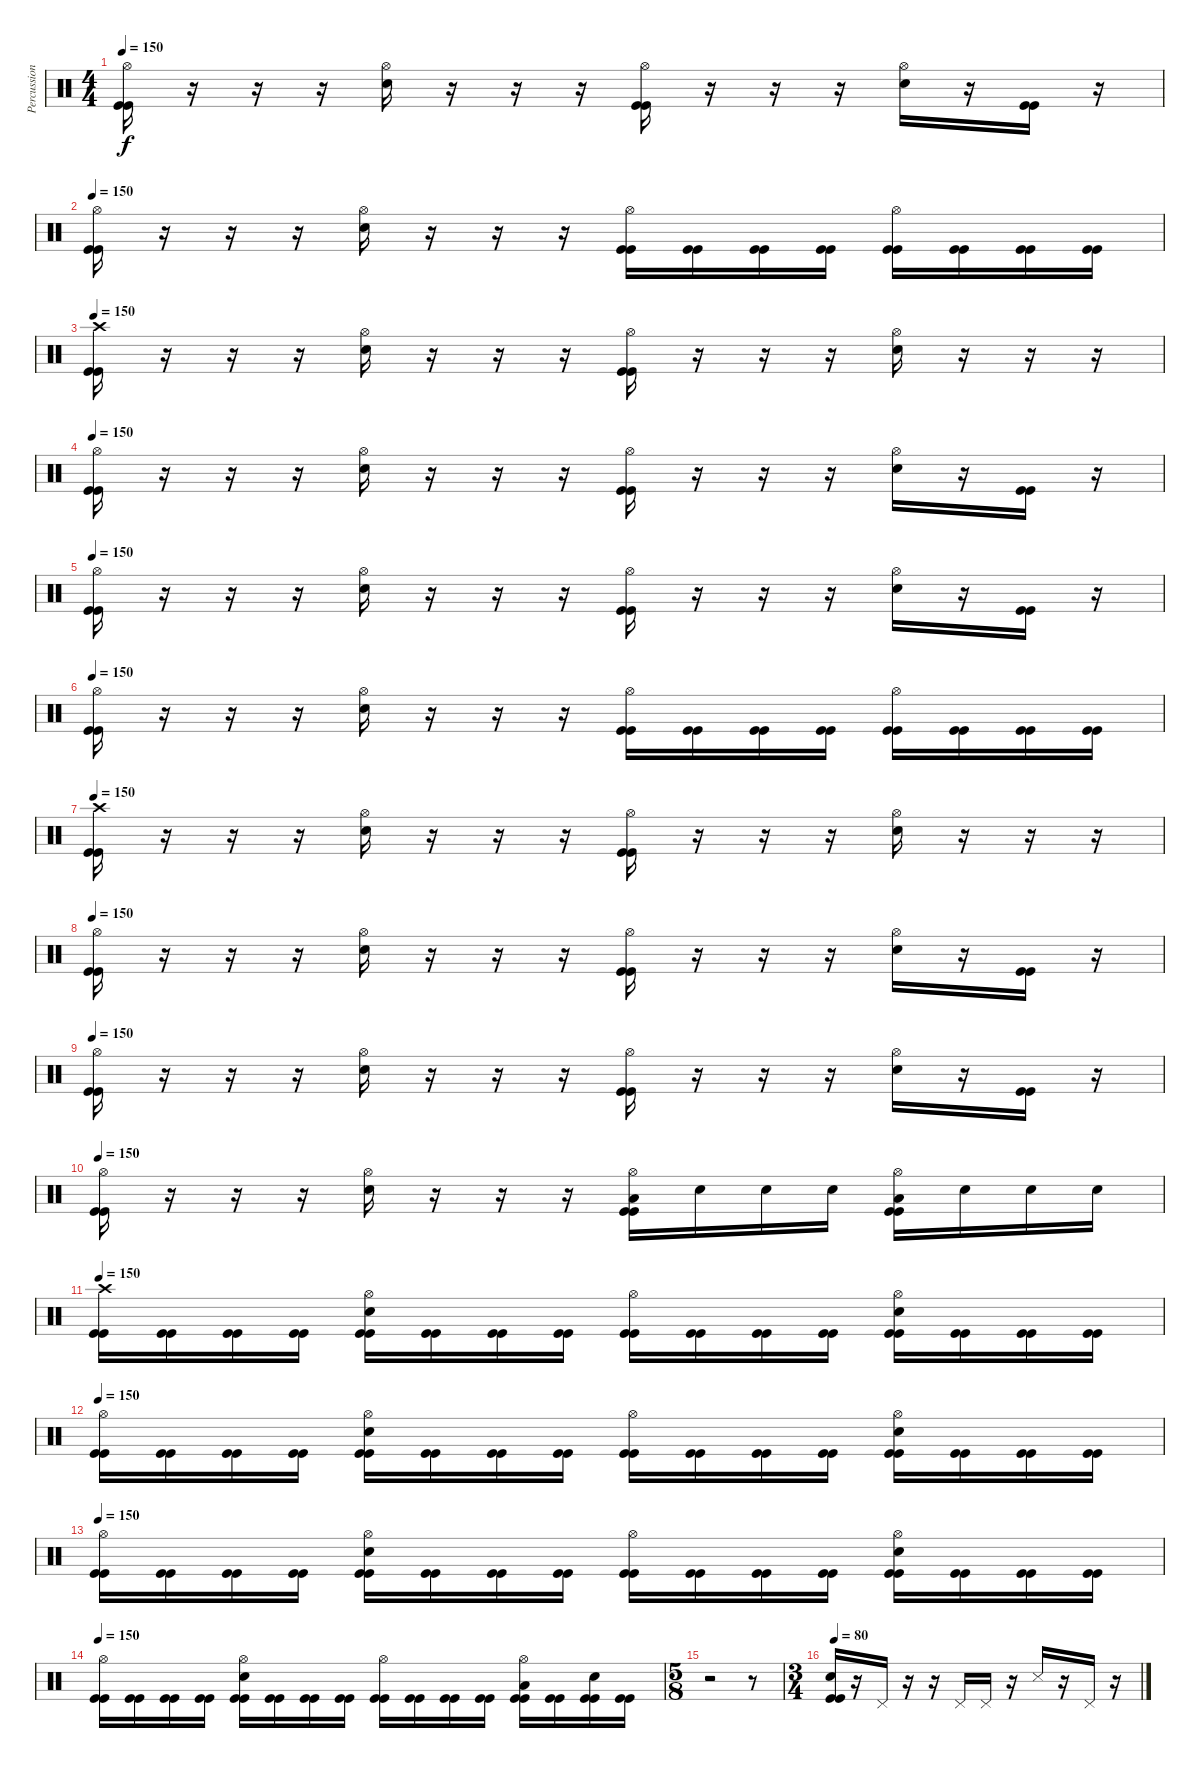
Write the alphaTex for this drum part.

\track ("Percussions" "Percussion") {instrument percussion}
\staff {score}
\articulation defaults
\ts (4 4)
\tempo 150
\clef neutral
\ks c
("Hi-Hat (open)" "Kick (hit)" "Kick (hit)").16{dy f} r.16 r.16 r.16 ("Hi-Hat (open)" "Electric Snare (hit)").16 r.16 r.16 r.16 ("Hi-Hat (open)" "Kick (hit)" "Kick (hit)").16 r.16 r.16 r.16 ("Hi-Hat (open)" "Electric Snare (hit)").16 r.16 ("Kick (hit)" "Kick (hit)").16 r.16 |
\tempo 150
("Hi-Hat (open)" "Kick (hit)" "Kick (hit)").16 r.16 r.16 r.16 ("Hi-Hat (open)" "Electric Snare (hit)").16 r.16 r.16 r.16 ("Hi-Hat (open)" "Kick (hit)" "Kick (hit)").16 ("Kick (hit)" "Kick (hit)").16 ("Kick (hit)" "Kick (hit)").16 ("Kick (hit)" "Kick (hit)").16 ("Hi-Hat (open)" "Kick (hit)" "Kick (hit)").16 ("Kick (hit)" "Kick (hit)").16 ("Kick (hit)" "Kick (hit)").16 ("Kick (hit)" "Kick (hit)").16 |
\tempo 150
("Crash high (hit)" "Kick (hit)" "Kick (hit)").16 r.16 r.16 r.16 ("Hi-Hat (open)" "Electric Snare (hit)").16 r.16 r.16 r.16 ("Hi-Hat (open)" "Kick (hit)" "Kick (hit)").16 r.16 r.16 r.16 ("Hi-Hat (open)" "Electric Snare (hit)").16 r.16 r.16 r.16 |
\tempo 150
("Hi-Hat (open)" "Kick (hit)" "Kick (hit)").16 r.16 r.16 r.16 ("Hi-Hat (open)" "Electric Snare (hit)").16 r.16 r.16 r.16 ("Hi-Hat (open)" "Kick (hit)" "Kick (hit)").16 r.16 r.16 r.16 ("Hi-Hat (open)" "Electric Snare (hit)").16 r.16 ("Kick (hit)" "Kick (hit)").16 r.16 |
\tempo 150
("Hi-Hat (open)" "Kick (hit)" "Kick (hit)").16 r.16 r.16 r.16 ("Hi-Hat (open)" "Electric Snare (hit)").16 r.16 r.16 r.16 ("Hi-Hat (open)" "Kick (hit)" "Kick (hit)").16 r.16 r.16 r.16 ("Hi-Hat (open)" "Electric Snare (hit)").16 r.16 ("Kick (hit)" "Kick (hit)").16 r.16 |
\tempo 150
("Hi-Hat (open)" "Kick (hit)" "Kick (hit)").16 r.16 r.16 r.16 ("Hi-Hat (open)" "Electric Snare (hit)").16 r.16 r.16 r.16 ("Hi-Hat (open)" "Kick (hit)" "Kick (hit)").16 ("Kick (hit)" "Kick (hit)").16 ("Kick (hit)" "Kick (hit)").16 ("Kick (hit)" "Kick (hit)").16 ("Hi-Hat (open)" "Kick (hit)" "Kick (hit)").16 ("Kick (hit)" "Kick (hit)").16 ("Kick (hit)" "Kick (hit)").16 ("Kick (hit)" "Kick (hit)").16 |
\tempo 150
("Crash high (hit)" "Kick (hit)" "Kick (hit)").16 r.16 r.16 r.16 ("Hi-Hat (open)" "Electric Snare (hit)").16 r.16 r.16 r.16 ("Hi-Hat (open)" "Kick (hit)" "Kick (hit)").16 r.16 r.16 r.16 ("Hi-Hat (open)" "Electric Snare (hit)").16 r.16 r.16 r.16 |
\tempo 150
("Hi-Hat (open)" "Kick (hit)" "Kick (hit)").16 r.16 r.16 r.16 ("Hi-Hat (open)" "Electric Snare (hit)").16 r.16 r.16 r.16 ("Hi-Hat (open)" "Kick (hit)" "Kick (hit)").16 r.16 r.16 r.16 ("Hi-Hat (open)" "Electric Snare (hit)").16 r.16 ("Kick (hit)" "Kick (hit)").16 r.16 |
\tempo 150
("Hi-Hat (open)" "Kick (hit)" "Kick (hit)").16 r.16 r.16 r.16 ("Hi-Hat (open)" "Electric Snare (hit)").16 r.16 r.16 r.16 ("Hi-Hat (open)" "Kick (hit)" "Kick (hit)").16 r.16 r.16 r.16 ("Hi-Hat (open)" "Electric Snare (hit)").16 r.16 ("Kick (hit)" "Kick (hit)").16 r.16 |
\tempo 150
("Hi-Hat (open)" "Kick (hit)" "Kick (hit)").16 r.16 r.16 r.16 ("Hi-Hat (open)" "Electric Snare (hit)").16 r.16 r.16 r.16 ("Hi-Hat (open)" "Low Floor Tom (hit)" "Kick (hit)" "Kick (hit)").16 "Electric Snare (hit)".16 "Electric Snare (hit)".16 "Electric Snare (hit)".16 ("Hi-Hat (open)" "Low Floor Tom (hit)" "Kick (hit)" "Kick (hit)").16 "Electric Snare (hit)".16 "Electric Snare (hit)".16 "Electric Snare (hit)".16 |
\tempo 150
("Crash high (hit)" "Kick (hit)" "Kick (hit)").16 ("Kick (hit)" "Kick (hit)").16 ("Kick (hit)" "Kick (hit)").16 ("Kick (hit)" "Kick (hit)").16 ("Hi-Hat (open)" "Electric Snare (hit)" "Kick (hit)" "Kick (hit)").16 ("Kick (hit)" "Kick (hit)").16 ("Kick (hit)" "Kick (hit)").16 ("Kick (hit)" "Kick (hit)").16 ("Hi-Hat (open)" "Kick (hit)" "Kick (hit)").16 ("Kick (hit)" "Kick (hit)").16 ("Kick (hit)" "Kick (hit)").16 ("Kick (hit)" "Kick (hit)").16 ("Hi-Hat (open)" "Electric Snare (hit)" "Kick (hit)" "Kick (hit)").16 ("Kick (hit)" "Kick (hit)").16 ("Kick (hit)" "Kick (hit)").16 ("Kick (hit)" "Kick (hit)").16 |
\tempo 150
("Hi-Hat (open)" "Kick (hit)" "Kick (hit)").16 ("Kick (hit)" "Kick (hit)").16 ("Kick (hit)" "Kick (hit)").16 ("Kick (hit)" "Kick (hit)").16 ("Hi-Hat (open)" "Electric Snare (hit)" "Kick (hit)" "Kick (hit)").16 ("Kick (hit)" "Kick (hit)").16 ("Kick (hit)" "Kick (hit)").16 ("Kick (hit)" "Kick (hit)").16 ("Hi-Hat (open)" "Kick (hit)" "Kick (hit)").16 ("Kick (hit)" "Kick (hit)").16 ("Kick (hit)" "Kick (hit)").16 ("Kick (hit)" "Kick (hit)").16 ("Hi-Hat (open)" "Electric Snare (hit)" "Kick (hit)" "Kick (hit)").16 ("Kick (hit)" "Kick (hit)").16 ("Kick (hit)" "Kick (hit)").16 ("Kick (hit)" "Kick (hit)").16 |
\tempo 150
("Hi-Hat (open)" "Kick (hit)" "Kick (hit)").16 ("Kick (hit)" "Kick (hit)").16 ("Kick (hit)" "Kick (hit)").16 ("Kick (hit)" "Kick (hit)").16 ("Hi-Hat (open)" "Electric Snare (hit)" "Kick (hit)" "Kick (hit)").16 ("Kick (hit)" "Kick (hit)").16 ("Kick (hit)" "Kick (hit)").16 ("Kick (hit)" "Kick (hit)").16 ("Hi-Hat (open)" "Kick (hit)" "Kick (hit)").16 ("Kick (hit)" "Kick (hit)").16 ("Kick (hit)" "Kick (hit)").16 ("Kick (hit)" "Kick (hit)").16 ("Hi-Hat (open)" "Electric Snare (hit)" "Kick (hit)" "Kick (hit)").16 ("Kick (hit)" "Kick (hit)").16 ("Kick (hit)" "Kick (hit)").16 ("Kick (hit)" "Kick (hit)").16 |
\tempo 150
("Hi-Hat (open)" "Kick (hit)" "Kick (hit)").16 ("Kick (hit)" "Kick (hit)").16 ("Kick (hit)" "Kick (hit)").16 ("Kick (hit)" "Kick (hit)").16 ("Hi-Hat (open)" "Electric Snare (hit)" "Kick (hit)" "Kick (hit)").16 ("Kick (hit)" "Kick (hit)").16 ("Kick (hit)" "Kick (hit)").16 ("Kick (hit)" "Kick (hit)").16 ("Hi-Hat (open)" "Kick (hit)" "Kick (hit)").16 ("Kick (hit)" "Kick (hit)").16 ("Kick (hit)" "Kick (hit)").16 ("Kick (hit)" "Kick (hit)").16 ("Hi-Hat (open)" "Low Floor Tom (hit)" "Kick (hit)" "Kick (hit)").16 ("Kick (hit)" "Kick (hit)").16 ("Electric Snare (hit)" "Kick (hit)" "Kick (hit)").16 ("Kick (hit)" "Kick (hit)").16 |
\ts (5 8)
r.2 r.8 |
\ts (3 4)
\tempo 80
("Electric Snare (hit)" "Kick (hit)" "Kick (hit)").16 r.16 "Pedal Hi-Hat (hit)".16 r.16 r.16 "Pedal Hi-Hat (hit)".16 "Pedal Hi-Hat (hit)".16 r.16 "Snare (side stick) 3".16 r.16 "Pedal Hi-Hat (hit)".16 r.16
